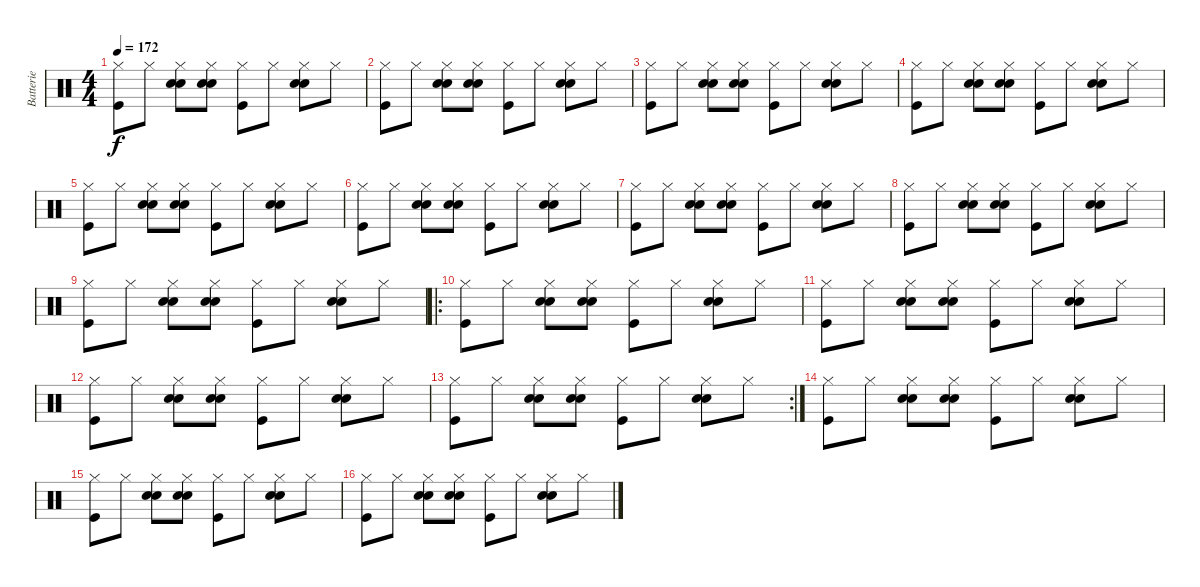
\track ("Batterie" "Batterie") {instrument percussion}
\staff {score}
\articulation defaults
\ts (4 4)
\tempo 172
\clef neutral
\ks c
("Hi-Hat (closed)" "Kick (hit)").8{dy f} "Hi-Hat (closed)".8 ("Electric Snare (hit)" "Hi-Hat (closed)" "Snare (hit) 2").8 ("Electric Snare (hit)" "Hi-Hat (closed)" "Snare (hit) 2").8 ("Hi-Hat (closed)" "Kick (hit)").8 "Hi-Hat (closed)".8 ("Electric Snare (hit)" "Hi-Hat (closed)" "Snare (hit) 2").8 "Hi-Hat (closed)".8 |
("Hi-Hat (closed)" "Kick (hit)").8 "Hi-Hat (closed)".8 ("Electric Snare (hit)" "Hi-Hat (closed)" "Snare (hit) 2").8 ("Electric Snare (hit)" "Hi-Hat (closed)" "Snare (hit) 2").8 ("Hi-Hat (closed)" "Kick (hit)").8 "Hi-Hat (closed)".8 ("Electric Snare (hit)" "Hi-Hat (closed)" "Snare (hit) 2").8 "Hi-Hat (closed)".8 |
("Hi-Hat (closed)" "Kick (hit)").8 "Hi-Hat (closed)".8 ("Electric Snare (hit)" "Hi-Hat (closed)" "Snare (hit) 2").8 ("Electric Snare (hit)" "Hi-Hat (closed)" "Snare (hit) 2").8 ("Hi-Hat (closed)" "Kick (hit)").8 "Hi-Hat (closed)".8 ("Electric Snare (hit)" "Hi-Hat (closed)" "Snare (hit) 2").8 "Hi-Hat (closed)".8 |
("Hi-Hat (closed)" "Kick (hit)").8 "Hi-Hat (closed)".8 ("Electric Snare (hit)" "Hi-Hat (closed)" "Snare (hit) 2").8 ("Electric Snare (hit)" "Hi-Hat (closed)" "Snare (hit) 2").8 ("Hi-Hat (closed)" "Kick (hit)").8 "Hi-Hat (closed)".8 ("Electric Snare (hit)" "Hi-Hat (closed)" "Snare (hit) 2").8 "Hi-Hat (closed)".8 |
("Hi-Hat (closed)" "Kick (hit)").8 "Hi-Hat (closed)".8 ("Electric Snare (hit)" "Hi-Hat (closed)" "Snare (hit) 2").8 ("Electric Snare (hit)" "Hi-Hat (closed)" "Snare (hit) 2").8 ("Hi-Hat (closed)" "Kick (hit)").8 "Hi-Hat (closed)".8 ("Electric Snare (hit)" "Hi-Hat (closed)" "Snare (hit) 2").8 "Hi-Hat (closed)".8 |
("Hi-Hat (closed)" "Kick (hit)").8 "Hi-Hat (closed)".8 ("Electric Snare (hit)" "Hi-Hat (closed)" "Snare (hit) 2").8 ("Electric Snare (hit)" "Hi-Hat (closed)" "Snare (hit) 2").8 ("Hi-Hat (closed)" "Kick (hit)").8 "Hi-Hat (closed)".8 ("Electric Snare (hit)" "Hi-Hat (closed)" "Snare (hit) 2").8 "Hi-Hat (closed)".8 |
("Hi-Hat (closed)" "Kick (hit)").8 "Hi-Hat (closed)".8 ("Electric Snare (hit)" "Hi-Hat (closed)" "Snare (hit) 2").8 ("Electric Snare (hit)" "Hi-Hat (closed)" "Snare (hit) 2").8 ("Hi-Hat (closed)" "Kick (hit)").8 "Hi-Hat (closed)".8 ("Electric Snare (hit)" "Hi-Hat (closed)" "Snare (hit) 2").8 "Hi-Hat (closed)".8 |
("Hi-Hat (closed)" "Kick (hit)").8 "Hi-Hat (closed)".8 ("Electric Snare (hit)" "Hi-Hat (closed)" "Snare (hit) 2").8 ("Electric Snare (hit)" "Hi-Hat (closed)" "Snare (hit) 2").8 ("Hi-Hat (closed)" "Kick (hit)").8 "Hi-Hat (closed)".8 ("Electric Snare (hit)" "Hi-Hat (closed)" "Snare (hit) 2").8 "Hi-Hat (closed)".8 |
("Hi-Hat (closed)" "Kick (hit)").8 "Hi-Hat (closed)".8 ("Electric Snare (hit)" "Hi-Hat (closed)" "Snare (hit) 2").8 ("Electric Snare (hit)" "Hi-Hat (closed)" "Snare (hit) 2").8 ("Hi-Hat (closed)" "Kick (hit)").8 "Hi-Hat (closed)".8 ("Electric Snare (hit)" "Hi-Hat (closed)" "Snare (hit) 2").8 "Hi-Hat (closed)".8 |
\ro
("Hi-Hat (closed)" "Kick (hit)").8 "Hi-Hat (closed)".8 ("Electric Snare (hit)" "Hi-Hat (closed)" "Snare (hit) 2").8 ("Electric Snare (hit)" "Hi-Hat (closed)" "Snare (hit) 2").8 ("Hi-Hat (closed)" "Kick (hit)").8 "Hi-Hat (closed)".8 ("Electric Snare (hit)" "Hi-Hat (closed)" "Snare (hit) 2").8 "Hi-Hat (closed)".8 |
("Hi-Hat (closed)" "Kick (hit)").8 "Hi-Hat (closed)".8 ("Electric Snare (hit)" "Hi-Hat (closed)" "Snare (hit) 2").8 ("Electric Snare (hit)" "Hi-Hat (closed)" "Snare (hit) 2").8 ("Hi-Hat (closed)" "Kick (hit)").8 "Hi-Hat (closed)".8 ("Electric Snare (hit)" "Hi-Hat (closed)" "Snare (hit) 2").8 "Hi-Hat (closed)".8 |
("Hi-Hat (closed)" "Kick (hit)").8 "Hi-Hat (closed)".8 ("Electric Snare (hit)" "Hi-Hat (closed)" "Snare (hit) 2").8 ("Electric Snare (hit)" "Hi-Hat (closed)" "Snare (hit) 2").8 ("Hi-Hat (closed)" "Kick (hit)").8 "Hi-Hat (closed)".8 ("Electric Snare (hit)" "Hi-Hat (closed)" "Snare (hit) 2").8 "Hi-Hat (closed)".8 |
\rc 2
("Hi-Hat (closed)" "Kick (hit)").8 "Hi-Hat (closed)".8 ("Electric Snare (hit)" "Hi-Hat (closed)" "Snare (hit) 2").8 ("Electric Snare (hit)" "Hi-Hat (closed)" "Snare (hit) 2").8 ("Hi-Hat (closed)" "Kick (hit)").8 "Hi-Hat (closed)".8 ("Electric Snare (hit)" "Hi-Hat (closed)" "Snare (hit) 2").8 "Hi-Hat (closed)".8 |
("Hi-Hat (closed)" "Kick (hit)").8 "Hi-Hat (closed)".8 ("Electric Snare (hit)" "Hi-Hat (closed)" "Snare (hit) 2").8 ("Electric Snare (hit)" "Hi-Hat (closed)" "Snare (hit) 2").8 ("Hi-Hat (closed)" "Kick (hit)").8 "Hi-Hat (closed)".8 ("Electric Snare (hit)" "Hi-Hat (closed)" "Snare (hit) 2").8 "Hi-Hat (closed)".8 |
("Hi-Hat (closed)" "Kick (hit)").8 "Hi-Hat (closed)".8 ("Electric Snare (hit)" "Hi-Hat (closed)" "Snare (hit) 2").8 ("Electric Snare (hit)" "Hi-Hat (closed)" "Snare (hit) 2").8 ("Hi-Hat (closed)" "Kick (hit)").8 "Hi-Hat (closed)".8 ("Electric Snare (hit)" "Hi-Hat (closed)" "Snare (hit) 2").8 "Hi-Hat (closed)".8 |
("Hi-Hat (closed)" "Kick (hit)").8 "Hi-Hat (closed)".8 ("Electric Snare (hit)" "Hi-Hat (closed)" "Snare (hit) 2").8 ("Electric Snare (hit)" "Hi-Hat (closed)" "Snare (hit) 2").8 ("Hi-Hat (closed)" "Kick (hit)").8 "Hi-Hat (closed)".8 ("Electric Snare (hit)" "Hi-Hat (closed)" "Snare (hit) 2").8 "Hi-Hat (closed)".8
